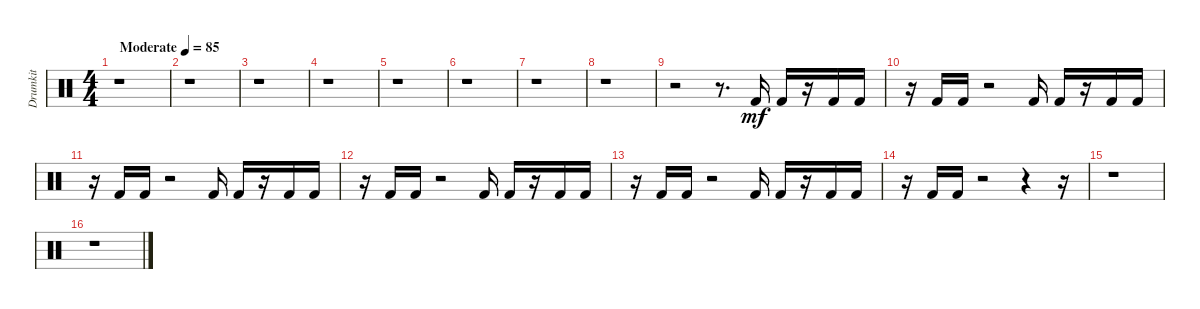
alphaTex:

\track ("Drumkit" "Drumkit") {instrument percussion}
\staff {score}
\articulation defaults
\ts (4 4)
\tempo (85 "Moderate")
\clef neutral
\ks c
r.1{dy mf} |
r.1 |
r.1 |
r.1 |
r.1 |
r.1 |
r.1 |
r.1 |
r.2 r.8{d} "Kick (hit) 2".16 "Kick (hit) 2".16 r.16 "Kick (hit) 2".16 "Kick (hit) 2".16 |
r.16 "Kick (hit) 2".16 "Kick (hit) 2".16 r.2 "Kick (hit) 2".16 "Kick (hit) 2".16 r.16 "Kick (hit) 2".16 "Kick (hit) 2".16 |
r.16 "Kick (hit) 2".16 "Kick (hit) 2".16 r.2 "Kick (hit) 2".16 "Kick (hit) 2".16 r.16 "Kick (hit) 2".16 "Kick (hit) 2".16 |
r.16 "Kick (hit) 2".16 "Kick (hit) 2".16 r.2 "Kick (hit) 2".16 "Kick (hit) 2".16 r.16 "Kick (hit) 2".16 "Kick (hit) 2".16 |
r.16 "Kick (hit) 2".16 "Kick (hit) 2".16 r.2 "Kick (hit) 2".16 "Kick (hit) 2".16 r.16 "Kick (hit) 2".16 "Kick (hit) 2".16 |
r.16 "Kick (hit) 2".16 "Kick (hit) 2".16 r.2 r.4 r.16 |
r.1 |
r.1
